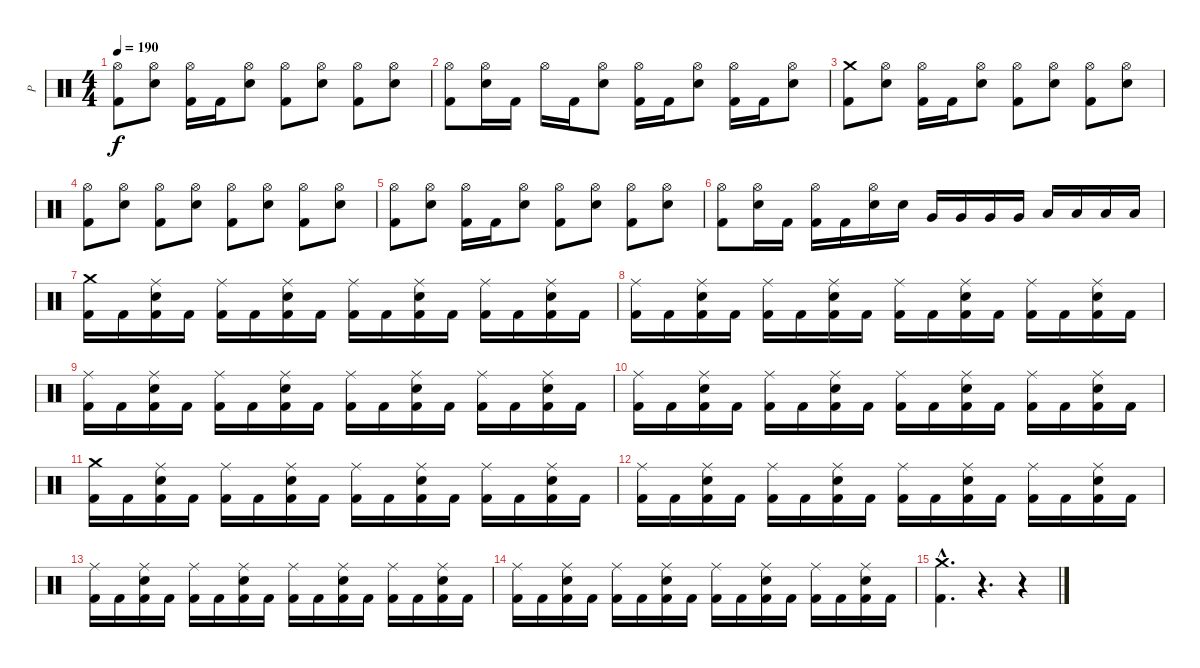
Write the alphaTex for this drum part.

\track ("P" "P") {instrument percussion}
\staff {score}
\articulation defaults
\ts (4 4)
\tempo 190
\clef neutral
\ks c
("Hi-Hat (open)" "Kick (hit) 2").8{dy f} ("Hi-Hat (open)" "Electric Snare (hit)").8 ("Hi-Hat (open)" "Kick (hit) 2").16 "Kick (hit) 2".16 ("Hi-Hat (open)" "Electric Snare (hit)").8 ("Hi-Hat (open)" "Kick (hit) 2").8 ("Hi-Hat (open)" "Electric Snare (hit)").8 ("Hi-Hat (open)" "Kick (hit) 2").8 ("Hi-Hat (open)" "Electric Snare (hit)").8 |
("Hi-Hat (open)" "Kick (hit) 2").8 ("Hi-Hat (open)" "Electric Snare (hit)").16 "Kick (hit) 2".16 "Hi-Hat (open)".16 "Kick (hit) 2".16 ("Hi-Hat (open)" "Electric Snare (hit)").8 ("Hi-Hat (open)" "Kick (hit) 2").16 "Kick (hit) 2".16 ("Hi-Hat (open)" "Electric Snare (hit)").8 ("Hi-Hat (open)" "Kick (hit) 2").16 "Kick (hit) 2".16 ("Hi-Hat (open)" "Electric Snare (hit)").8 |
("Crash medium (hit)" "Kick (hit) 2").8 ("Hi-Hat (open)" "Electric Snare (hit)").8 ("Hi-Hat (open)" "Kick (hit) 2").16 "Kick (hit) 2".16 ("Hi-Hat (open)" "Electric Snare (hit)").8 ("Hi-Hat (open)" "Kick (hit) 2").8 ("Hi-Hat (open)" "Electric Snare (hit)").8 ("Hi-Hat (open)" "Kick (hit) 2").8 ("Hi-Hat (open)" "Electric Snare (hit)").8 |
("Hi-Hat (open)" "Kick (hit) 2").8 ("Hi-Hat (open)" "Electric Snare (hit)").8 ("Hi-Hat (open)" "Kick (hit) 2").8 ("Hi-Hat (open)" "Electric Snare (hit)").8 ("Hi-Hat (open)" "Kick (hit) 2").8 ("Hi-Hat (open)" "Electric Snare (hit)").8 ("Hi-Hat (open)" "Kick (hit) 2").8 ("Hi-Hat (open)" "Electric Snare (hit)").8 |
("Hi-Hat (open)" "Kick (hit) 2").8 ("Hi-Hat (open)" "Electric Snare (hit)").8 ("Hi-Hat (open)" "Kick (hit) 2").16 "Kick (hit) 2".16 ("Hi-Hat (open)" "Electric Snare (hit)").8 ("Hi-Hat (open)" "Kick (hit) 2").8 ("Hi-Hat (open)" "Electric Snare (hit)").8 ("Hi-Hat (open)" "Kick (hit) 2").8 ("Hi-Hat (open)" "Electric Snare (hit)").8 |
("Hi-Hat (open)" "Kick (hit) 2").8 ("Hi-Hat (open)" "Electric Snare (hit)").16 "Kick (hit) 2".16 ("Hi-Hat (open)" "Kick (hit) 2").16 "Kick (hit) 2".16 ("Hi-Hat (open)" "Electric Snare (hit)").16 "Electric Snare (hit)".16 "Very Low Tom (hit)".16 "Very Low Tom (hit)".16 "Very Low Tom (hit)".16 "Very Low Tom (hit)".16 "Low Floor Tom (hit)".16 "Low Floor Tom (hit)".16 "Low Floor Tom (hit)".16 "Low Floor Tom (hit)".16 |
("Crash medium (hit)" "Kick (hit) 2").16 "Kick (hit) 2".16 ("Ride (middle)" "Electric Snare (hit)" "Kick (hit) 2").16 "Kick (hit) 2".16 ("Ride (middle)" "Kick (hit) 2").16 "Kick (hit) 2".16 ("Ride (middle)" "Electric Snare (hit)" "Kick (hit) 2").16 "Kick (hit) 2".16 ("Ride (middle)" "Kick (hit) 2").16 "Kick (hit) 2".16 ("Ride (middle)" "Electric Snare (hit)" "Kick (hit) 2").16 "Kick (hit) 2".16 ("Ride (middle)" "Kick (hit) 2").16 "Kick (hit) 2".16 ("Ride (middle)" "Electric Snare (hit)" "Kick (hit) 2").16 "Kick (hit) 2".16 |
("Ride (middle)" "Kick (hit) 2").16 "Kick (hit) 2".16 ("Ride (middle)" "Electric Snare (hit)" "Kick (hit) 2").16 "Kick (hit) 2".16 ("Ride (middle)" "Kick (hit) 2").16 "Kick (hit) 2".16 ("Ride (middle)" "Electric Snare (hit)" "Kick (hit) 2").16 "Kick (hit) 2".16 ("Ride (middle)" "Kick (hit) 2").16 "Kick (hit) 2".16 ("Ride (middle)" "Electric Snare (hit)" "Kick (hit) 2").16 "Kick (hit) 2".16 ("Ride (middle)" "Kick (hit) 2").16 "Kick (hit) 2".16 ("Ride (middle)" "Electric Snare (hit)" "Kick (hit) 2").16 "Kick (hit) 2".16 |
("Ride (middle)" "Kick (hit) 2").16 "Kick (hit) 2".16 ("Ride (middle)" "Electric Snare (hit)" "Kick (hit) 2").16 "Kick (hit) 2".16 ("Ride (middle)" "Kick (hit) 2").16 "Kick (hit) 2".16 ("Ride (middle)" "Electric Snare (hit)" "Kick (hit) 2").16 "Kick (hit) 2".16 ("Ride (middle)" "Kick (hit) 2").16 "Kick (hit) 2".16 ("Ride (middle)" "Electric Snare (hit)" "Kick (hit) 2").16 "Kick (hit) 2".16 ("Ride (middle)" "Kick (hit) 2").16 "Kick (hit) 2".16 ("Ride (middle)" "Electric Snare (hit)" "Kick (hit) 2").16 "Kick (hit) 2".16 |
("Ride (middle)" "Kick (hit) 2").16 "Kick (hit) 2".16 ("Ride (middle)" "Electric Snare (hit)" "Kick (hit) 2").16 "Kick (hit) 2".16 ("Ride (middle)" "Kick (hit) 2").16 "Kick (hit) 2".16 ("Ride (middle)" "Electric Snare (hit)" "Kick (hit) 2").16 "Kick (hit) 2".16 ("Ride (middle)" "Kick (hit) 2").16 "Kick (hit) 2".16 ("Ride (middle)" "Electric Snare (hit)" "Kick (hit) 2").16 "Kick (hit) 2".16 ("Ride (middle)" "Kick (hit) 2").16 "Kick (hit) 2".16 ("Ride (middle)" "Electric Snare (hit)" "Kick (hit) 2").16 "Kick (hit) 2".16 |
("Crash medium (hit)" "Kick (hit) 2").16 "Kick (hit) 2".16 ("Ride (middle)" "Electric Snare (hit)" "Kick (hit) 2").16 "Kick (hit) 2".16 ("Ride (middle)" "Kick (hit) 2").16 "Kick (hit) 2".16 ("Ride (middle)" "Electric Snare (hit)" "Kick (hit) 2").16 "Kick (hit) 2".16 ("Ride (middle)" "Kick (hit) 2").16 "Kick (hit) 2".16 ("Ride (middle)" "Electric Snare (hit)" "Kick (hit) 2").16 "Kick (hit) 2".16 ("Ride (middle)" "Kick (hit) 2").16 "Kick (hit) 2".16 ("Ride (middle)" "Electric Snare (hit)" "Kick (hit) 2").16 "Kick (hit) 2".16 |
("Ride (middle)" "Kick (hit) 2").16 "Kick (hit) 2".16 ("Ride (middle)" "Electric Snare (hit)" "Kick (hit) 2").16 "Kick (hit) 2".16 ("Ride (middle)" "Kick (hit) 2").16 "Kick (hit) 2".16 ("Ride (middle)" "Electric Snare (hit)" "Kick (hit) 2").16 "Kick (hit) 2".16 ("Ride (middle)" "Kick (hit) 2").16 "Kick (hit) 2".16 ("Ride (middle)" "Electric Snare (hit)" "Kick (hit) 2").16 "Kick (hit) 2".16 ("Ride (middle)" "Kick (hit) 2").16 "Kick (hit) 2".16 ("Ride (middle)" "Electric Snare (hit)" "Kick (hit) 2").16 "Kick (hit) 2".16 |
("Ride (middle)" "Kick (hit) 2").16 "Kick (hit) 2".16 ("Ride (middle)" "Electric Snare (hit)" "Kick (hit) 2").16 "Kick (hit) 2".16 ("Ride (middle)" "Kick (hit) 2").16 "Kick (hit) 2".16 ("Ride (middle)" "Electric Snare (hit)" "Kick (hit) 2").16 "Kick (hit) 2".16 ("Ride (middle)" "Kick (hit) 2").16 "Kick (hit) 2".16 ("Ride (middle)" "Electric Snare (hit)" "Kick (hit) 2").16 "Kick (hit) 2".16 ("Ride (middle)" "Kick (hit) 2").16 "Kick (hit) 2".16 ("Ride (middle)" "Electric Snare (hit)" "Kick (hit) 2").16 "Kick (hit) 2".16 |
("Ride (middle)" "Kick (hit) 2").16 "Kick (hit) 2".16 ("Ride (middle)" "Electric Snare (hit)" "Kick (hit) 2").16 "Kick (hit) 2".16 ("Ride (middle)" "Kick (hit) 2").16 "Kick (hit) 2".16 ("Ride (middle)" "Electric Snare (hit)" "Kick (hit) 2").16 "Kick (hit) 2".16 ("Ride (middle)" "Kick (hit) 2").16 "Kick (hit) 2".16 ("Ride (middle)" "Electric Snare (hit)" "Kick (hit) 2").16 "Kick (hit) 2".16 ("Ride (middle)" "Kick (hit) 2").16 "Kick (hit) 2".16 ("Ride (middle)" "Electric Snare (hit)" "Kick (hit) 2").16 "Kick (hit) 2".16 |
("Crash medium (hit)"{hac} "Kick (hit) 2"{hac}).4{d} r.4{d} r.4
